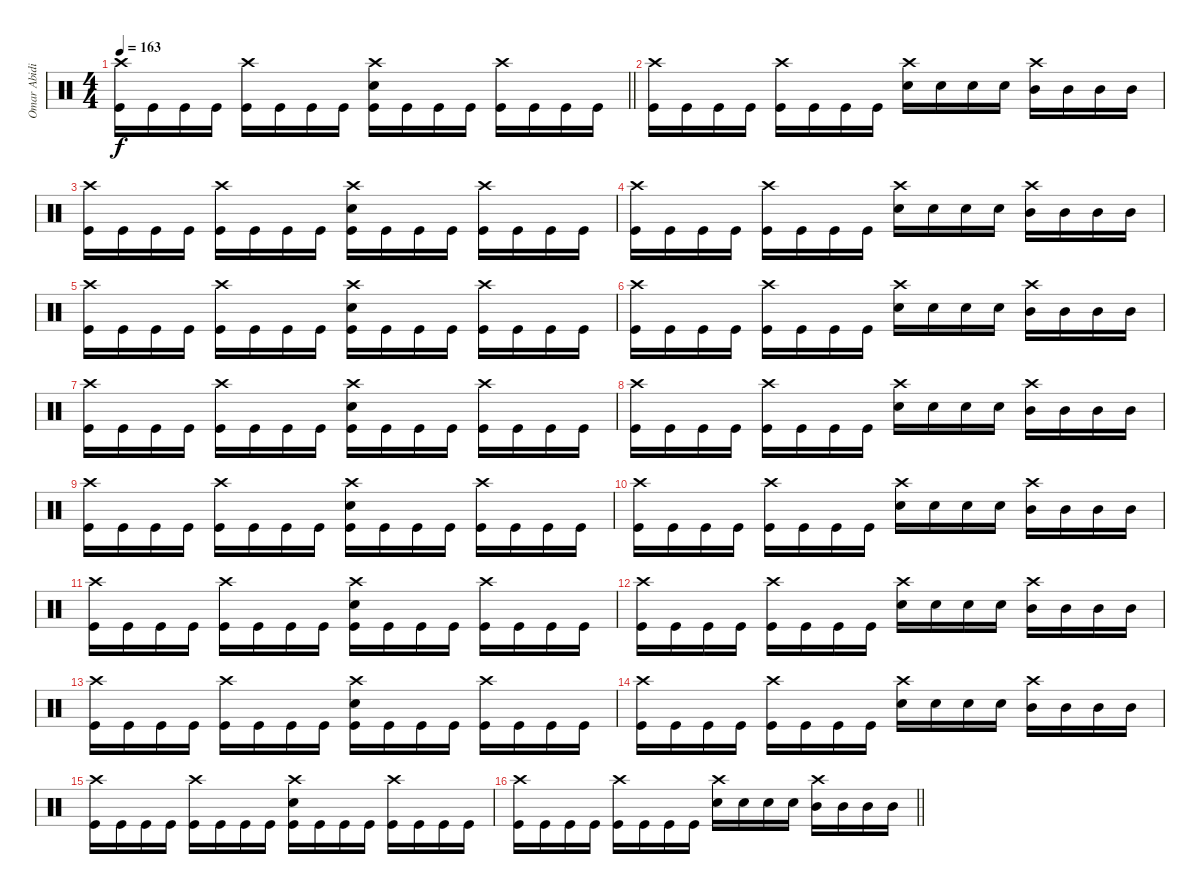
\track ("Omar Abidi" "Omar Abidi") {instrument percussion}
\staff {score}
\articulation defaults
\ts (4 4)
\tempo 163
\clef neutral
\barLineRight lightlight
\ks c
("Crash high (hit)" "Kick (hit)").16{dy f} "Kick (hit)".16 "Kick (hit)".16 "Kick (hit)".16 ("Crash high (hit)" "Kick (hit)").16 "Kick (hit)".16 "Kick (hit)".16 "Kick (hit)".16 ("Crash high (hit)" "Snare (hit) 2" "Kick (hit)").16 "Kick (hit)".16 "Kick (hit)".16 "Kick (hit)".16 ("Crash high (hit)" "Kick (hit)").16 "Kick (hit)".16 "Kick (hit)".16 "Kick (hit)".16 |
("Crash high (hit)" "Kick (hit)").16 "Kick (hit)".16 "Kick (hit)".16 "Kick (hit)".16 ("Crash high (hit)" "Kick (hit)").16 "Kick (hit)".16 "Kick (hit)".16 "Kick (hit)".16 ("Crash high (hit)" "Snare (hit) 2").16 "Snare (hit) 2".16 "Snare (hit) 2".16 "Snare (hit) 2".16 ("Crash high (hit)" "Mid Tom (hit)").16 "Mid Tom (hit)".16 "Mid Tom (hit)".16 "Mid Tom (hit)".16 |
("Crash high (hit)" "Kick (hit)").16 "Kick (hit)".16 "Kick (hit)".16 "Kick (hit)".16 ("Crash high (hit)" "Kick (hit)").16 "Kick (hit)".16 "Kick (hit)".16 "Kick (hit)".16 ("Crash high (hit)" "Snare (hit) 2" "Kick (hit)").16 "Kick (hit)".16 "Kick (hit)".16 "Kick (hit)".16 ("Crash high (hit)" "Kick (hit)").16 "Kick (hit)".16 "Kick (hit)".16 "Kick (hit)".16 |
("Crash high (hit)" "Kick (hit)").16 "Kick (hit)".16 "Kick (hit)".16 "Kick (hit)".16 ("Crash high (hit)" "Kick (hit)").16 "Kick (hit)".16 "Kick (hit)".16 "Kick (hit)".16 ("Crash high (hit)" "Snare (hit) 2").16 "Snare (hit) 2".16 "Snare (hit) 2".16 "Snare (hit) 2".16 ("Crash high (hit)" "Mid Tom (hit)").16 "Mid Tom (hit)".16 "Mid Tom (hit)".16 "Mid Tom (hit)".16 |
("Crash high (hit)" "Kick (hit)").16 "Kick (hit)".16 "Kick (hit)".16 "Kick (hit)".16 ("Crash high (hit)" "Kick (hit)").16 "Kick (hit)".16 "Kick (hit)".16 "Kick (hit)".16 ("Crash high (hit)" "Snare (hit) 2" "Kick (hit)").16 "Kick (hit)".16 "Kick (hit)".16 "Kick (hit)".16 ("Crash high (hit)" "Kick (hit)").16 "Kick (hit)".16 "Kick (hit)".16 "Kick (hit)".16 |
("Crash high (hit)" "Kick (hit)").16 "Kick (hit)".16 "Kick (hit)".16 "Kick (hit)".16 ("Crash high (hit)" "Kick (hit)").16 "Kick (hit)".16 "Kick (hit)".16 "Kick (hit)".16 ("Crash high (hit)" "Snare (hit) 2").16 "Snare (hit) 2".16 "Snare (hit) 2".16 "Snare (hit) 2".16 ("Crash high (hit)" "Mid Tom (hit)").16 "Mid Tom (hit)".16 "Mid Tom (hit)".16 "Mid Tom (hit)".16 |
("Crash high (hit)" "Kick (hit)").16 "Kick (hit)".16 "Kick (hit)".16 "Kick (hit)".16 ("Crash high (hit)" "Kick (hit)").16 "Kick (hit)".16 "Kick (hit)".16 "Kick (hit)".16 ("Crash high (hit)" "Snare (hit) 2" "Kick (hit)").16 "Kick (hit)".16 "Kick (hit)".16 "Kick (hit)".16 ("Crash high (hit)" "Kick (hit)").16 "Kick (hit)".16 "Kick (hit)".16 "Kick (hit)".16 |
("Crash high (hit)" "Kick (hit)").16 "Kick (hit)".16 "Kick (hit)".16 "Kick (hit)".16 ("Crash high (hit)" "Kick (hit)").16 "Kick (hit)".16 "Kick (hit)".16 "Kick (hit)".16 ("Crash high (hit)" "Snare (hit) 2").16 "Snare (hit) 2".16 "Snare (hit) 2".16 "Snare (hit) 2".16 ("Crash high (hit)" "Mid Tom (hit)").16 "Mid Tom (hit)".16 "Mid Tom (hit)".16 "Mid Tom (hit)".16 |
("Crash high (hit)" "Kick (hit)").16 "Kick (hit)".16 "Kick (hit)".16 "Kick (hit)".16 ("Crash high (hit)" "Kick (hit)").16 "Kick (hit)".16 "Kick (hit)".16 "Kick (hit)".16 ("Crash high (hit)" "Snare (hit) 2" "Kick (hit)").16 "Kick (hit)".16 "Kick (hit)".16 "Kick (hit)".16 ("Crash high (hit)" "Kick (hit)").16 "Kick (hit)".16 "Kick (hit)".16 "Kick (hit)".16 |
("Crash high (hit)" "Kick (hit)").16 "Kick (hit)".16 "Kick (hit)".16 "Kick (hit)".16 ("Crash high (hit)" "Kick (hit)").16 "Kick (hit)".16 "Kick (hit)".16 "Kick (hit)".16 ("Crash high (hit)" "Snare (hit) 2").16 "Snare (hit) 2".16 "Snare (hit) 2".16 "Snare (hit) 2".16 ("Crash high (hit)" "Mid Tom (hit)").16 "Mid Tom (hit)".16 "Mid Tom (hit)".16 "Mid Tom (hit)".16 |
("Crash high (hit)" "Kick (hit)").16 "Kick (hit)".16 "Kick (hit)".16 "Kick (hit)".16 ("Crash high (hit)" "Kick (hit)").16 "Kick (hit)".16 "Kick (hit)".16 "Kick (hit)".16 ("Crash high (hit)" "Snare (hit) 2" "Kick (hit)").16 "Kick (hit)".16 "Kick (hit)".16 "Kick (hit)".16 ("Crash high (hit)" "Kick (hit)").16 "Kick (hit)".16 "Kick (hit)".16 "Kick (hit)".16 |
("Crash high (hit)" "Kick (hit)").16 "Kick (hit)".16 "Kick (hit)".16 "Kick (hit)".16 ("Crash high (hit)" "Kick (hit)").16 "Kick (hit)".16 "Kick (hit)".16 "Kick (hit)".16 ("Crash high (hit)" "Snare (hit) 2").16 "Snare (hit) 2".16 "Snare (hit) 2".16 "Snare (hit) 2".16 ("Crash high (hit)" "Mid Tom (hit)").16 "Mid Tom (hit)".16 "Mid Tom (hit)".16 "Mid Tom (hit)".16 |
("Crash high (hit)" "Kick (hit)").16 "Kick (hit)".16 "Kick (hit)".16 "Kick (hit)".16 ("Crash high (hit)" "Kick (hit)").16 "Kick (hit)".16 "Kick (hit)".16 "Kick (hit)".16 ("Crash high (hit)" "Snare (hit) 2" "Kick (hit)").16 "Kick (hit)".16 "Kick (hit)".16 "Kick (hit)".16 ("Crash high (hit)" "Kick (hit)").16 "Kick (hit)".16 "Kick (hit)".16 "Kick (hit)".16 |
("Crash high (hit)" "Kick (hit)").16 "Kick (hit)".16 "Kick (hit)".16 "Kick (hit)".16 ("Crash high (hit)" "Kick (hit)").16 "Kick (hit)".16 "Kick (hit)".16 "Kick (hit)".16 ("Crash high (hit)" "Snare (hit) 2").16 "Snare (hit) 2".16 "Snare (hit) 2".16 "Snare (hit) 2".16 ("Crash high (hit)" "Mid Tom (hit)").16 "Mid Tom (hit)".16 "Mid Tom (hit)".16 "Mid Tom (hit)".16 |
("Crash high (hit)" "Kick (hit)").16 "Kick (hit)".16 "Kick (hit)".16 "Kick (hit)".16 ("Crash high (hit)" "Kick (hit)").16 "Kick (hit)".16 "Kick (hit)".16 "Kick (hit)".16 ("Crash high (hit)" "Snare (hit) 2" "Kick (hit)").16 "Kick (hit)".16 "Kick (hit)".16 "Kick (hit)".16 ("Crash high (hit)" "Kick (hit)").16 "Kick (hit)".16 "Kick (hit)".16 "Kick (hit)".16 |
\barLineRight lightlight
("Crash high (hit)" "Kick (hit)").16 "Kick (hit)".16 "Kick (hit)".16 "Kick (hit)".16 ("Crash high (hit)" "Kick (hit)").16 "Kick (hit)".16 "Kick (hit)".16 "Kick (hit)".16 ("Crash high (hit)" "Snare (hit) 2").16 "Snare (hit) 2".16 "Snare (hit) 2".16 "Snare (hit) 2".16 ("Crash high (hit)" "Mid Tom (hit)").16 "Mid Tom (hit)".16 "Mid Tom (hit)".16 "Mid Tom (hit)".16
